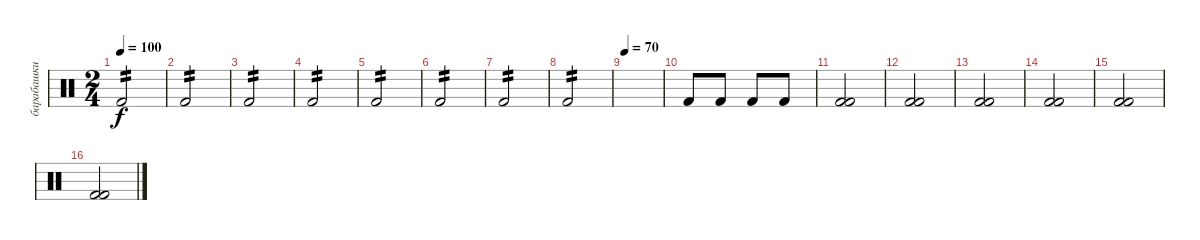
\track ("барабашки low" "барабашки ") {instrument percussion}
\staff {score}
\articulation defaults
\ts (2 4)
\tempo 100
\clef neutral
\ks c "Kick (hit) 2".2{tp 2 dy f}
|
"Kick (hit) 2".2{tp 2} |
"Kick (hit) 2".2{tp 2} |
"Kick (hit) 2".2{tp 2} |
"Kick (hit) 2".2{tp 2} |
"Kick (hit) 2".2{tp 2} |
"Kick (hit) 2".2{tp 2} |
"Kick (hit) 2".2{tp 2} |
\tempo 70
|
"Kick (hit) 2".8 "Kick (hit) 2".8 "Kick (hit) 2".8 "Kick (hit) 2".8 |
("Kick (hit) 2" "Kick (hit) 2").2 |
("Kick (hit) 2" "Kick (hit) 2").2 |
("Kick (hit) 2" "Kick (hit) 2").2 |
("Kick (hit) 2" "Kick (hit) 2").2 |
("Kick (hit) 2" "Kick (hit) 2").2 |
("Kick (hit) 2" "Kick (hit) 2").2
